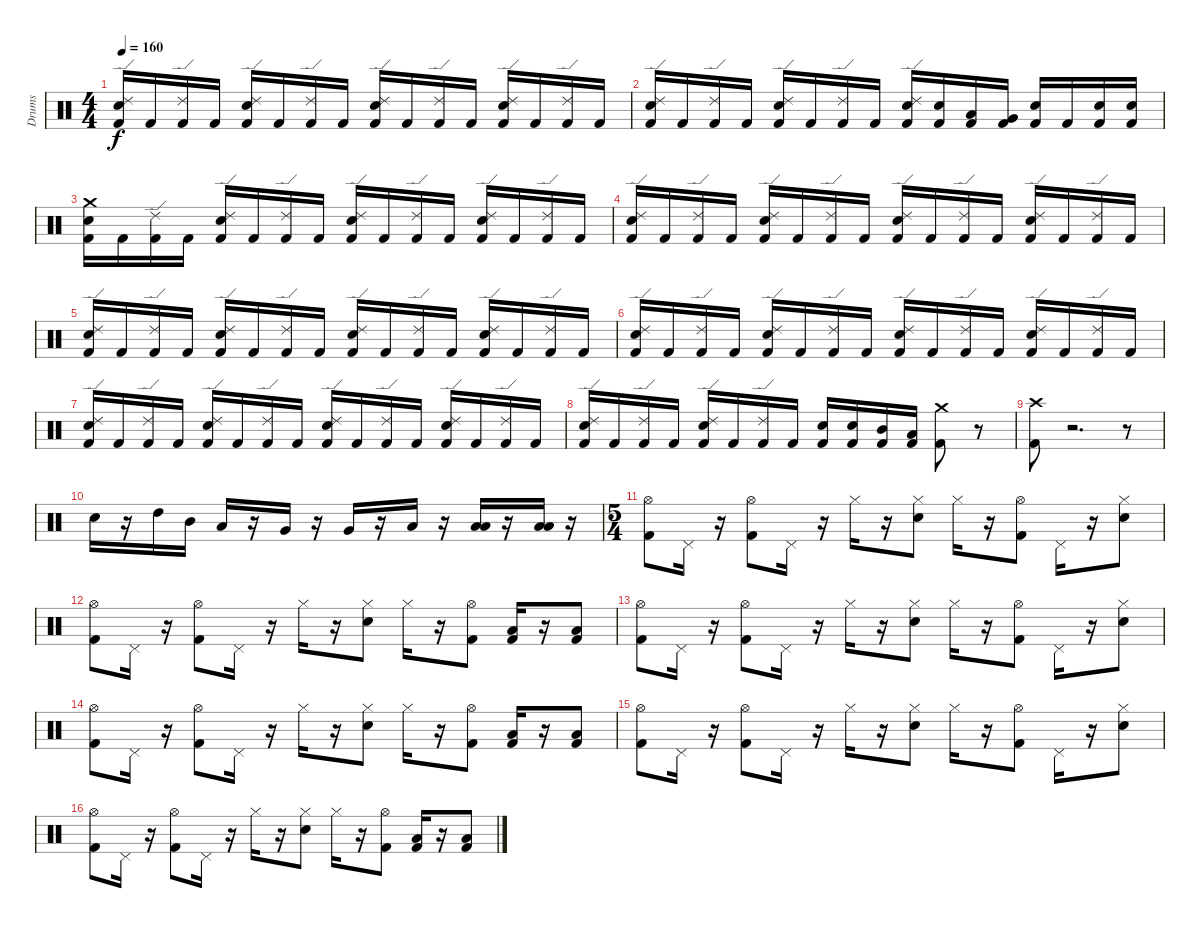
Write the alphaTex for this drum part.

\track ("Drums" "Drums") {instrument percussion}
\staff {score}
\articulation defaults
\ts (4 4)
\tempo 160
\clef neutral
\ks c
("Ride (edge) 2" "Kick (hit) 2" "Electric Snare (hit)").16{dy f} "Kick (hit) 2".16 ("Ride (edge) 2" "Kick (hit) 2").16 "Kick (hit) 2".16 ("Ride (edge) 2" "Kick (hit) 2" "Electric Snare (hit)").16 "Kick (hit) 2".16 ("Ride (edge) 2" "Kick (hit) 2").16 "Kick (hit) 2".16 ("Ride (edge) 2" "Kick (hit) 2" "Electric Snare (hit)").16 "Kick (hit) 2".16 ("Ride (edge) 2" "Kick (hit) 2").16 "Kick (hit) 2".16 ("Ride (edge) 2" "Kick (hit) 2" "Electric Snare (hit)").16 "Kick (hit) 2".16 ("Ride (edge) 2" "Kick (hit) 2").16 "Kick (hit) 2".16 |
("Ride (edge) 2" "Kick (hit) 2" "Electric Snare (hit)").16 "Kick (hit) 2".16 ("Ride (edge) 2" "Kick (hit) 2").16 "Kick (hit) 2".16 ("Ride (edge) 2" "Kick (hit) 2" "Electric Snare (hit)").16 "Kick (hit) 2".16 ("Ride (edge) 2" "Kick (hit) 2").16 "Kick (hit) 2".16 ("Ride (edge) 2" "Kick (hit) 2" "Electric Snare (hit)").16 ("Electric Snare (hit)" "Kick (hit) 2").16 ("Low Tom (hit)" "Kick (hit) 2").16 ("Very Low Tom (hit)" "Kick (hit) 2").16 ("Kick (hit) 2" "Electric Snare (hit)").16 "Kick (hit) 2".16 ("Electric Snare (hit)" "Kick (hit) 2").16 ("Electric Snare (hit)" "Kick (hit) 2").16 |
("Crash medium (hit)" "Kick (hit) 2" "Electric Snare (hit)").16 "Kick (hit) 2".16 ("Ride (edge) 2" "Kick (hit) 2").16 "Kick (hit) 2".16 ("Ride (edge) 2" "Kick (hit) 2" "Electric Snare (hit)").16 "Kick (hit) 2".16 ("Ride (edge) 2" "Kick (hit) 2").16 "Kick (hit) 2".16 ("Ride (edge) 2" "Kick (hit) 2" "Electric Snare (hit)").16 "Kick (hit) 2".16 ("Ride (edge) 2" "Kick (hit) 2").16 "Kick (hit) 2".16 ("Ride (edge) 2" "Kick (hit) 2" "Electric Snare (hit)").16 "Kick (hit) 2".16 ("Ride (edge) 2" "Kick (hit) 2").16 "Kick (hit) 2".16 |
("Ride (edge) 2" "Kick (hit) 2" "Electric Snare (hit)").16 "Kick (hit) 2".16 ("Ride (edge) 2" "Kick (hit) 2").16 "Kick (hit) 2".16 ("Ride (edge) 2" "Kick (hit) 2" "Electric Snare (hit)").16 "Kick (hit) 2".16 ("Ride (edge) 2" "Kick (hit) 2").16 "Kick (hit) 2".16 ("Ride (edge) 2" "Kick (hit) 2" "Electric Snare (hit)").16 "Kick (hit) 2".16 ("Ride (edge) 2" "Kick (hit) 2").16 "Kick (hit) 2".16 ("Ride (edge) 2" "Kick (hit) 2" "Electric Snare (hit)").16 "Kick (hit) 2".16 ("Ride (edge) 2" "Kick (hit) 2").16 "Kick (hit) 2".16 |
("Ride (edge) 2" "Kick (hit) 2" "Electric Snare (hit)").16 "Kick (hit) 2".16 ("Ride (edge) 2" "Kick (hit) 2").16 "Kick (hit) 2".16 ("Ride (edge) 2" "Kick (hit) 2" "Electric Snare (hit)").16 "Kick (hit) 2".16 ("Ride (edge) 2" "Kick (hit) 2").16 "Kick (hit) 2".16 ("Ride (edge) 2" "Kick (hit) 2" "Electric Snare (hit)").16 "Kick (hit) 2".16 ("Ride (edge) 2" "Kick (hit) 2").16 "Kick (hit) 2".16 ("Ride (edge) 2" "Kick (hit) 2" "Electric Snare (hit)").16 "Kick (hit) 2".16 ("Ride (edge) 2" "Kick (hit) 2").16 "Kick (hit) 2".16 |
("Ride (edge) 2" "Kick (hit) 2" "Electric Snare (hit)").16 "Kick (hit) 2".16 ("Ride (edge) 2" "Kick (hit) 2").16 "Kick (hit) 2".16 ("Ride (edge) 2" "Kick (hit) 2" "Electric Snare (hit)").16 "Kick (hit) 2".16 ("Ride (edge) 2" "Kick (hit) 2").16 "Kick (hit) 2".16 ("Ride (edge) 2" "Kick (hit) 2" "Electric Snare (hit)").16 "Kick (hit) 2".16 ("Ride (edge) 2" "Kick (hit) 2").16 "Kick (hit) 2".16 ("Ride (edge) 2" "Kick (hit) 2" "Electric Snare (hit)").16 "Kick (hit) 2".16 ("Ride (edge) 2" "Kick (hit) 2").16 "Kick (hit) 2".16 |
("Ride (edge) 2" "Kick (hit) 2" "Electric Snare (hit)").16 "Kick (hit) 2".16 ("Ride (edge) 2" "Kick (hit) 2").16 "Kick (hit) 2".16 ("Ride (edge) 2" "Kick (hit) 2" "Electric Snare (hit)").16 "Kick (hit) 2".16 ("Ride (edge) 2" "Kick (hit) 2").16 "Kick (hit) 2".16 ("Ride (edge) 2" "Kick (hit) 2" "Electric Snare (hit)").16 "Kick (hit) 2".16 ("Ride (edge) 2" "Kick (hit) 2").16 "Kick (hit) 2".16 ("Ride (edge) 2" "Kick (hit) 2" "Electric Snare (hit)").16 "Kick (hit) 2".16 ("Ride (edge) 2" "Kick (hit) 2").16 "Kick (hit) 2".16 |
("Ride (edge) 2" "Kick (hit) 2" "Electric Snare (hit)").16 "Kick (hit) 2".16 ("Ride (edge) 2" "Kick (hit) 2").16 "Kick (hit) 2".16 ("Ride (edge) 2" "Kick (hit) 2" "Electric Snare (hit)").16 "Kick (hit) 2".16 ("Ride (edge) 2" "Kick (hit) 2").16 "Kick (hit) 2".16 ("Kick (hit) 2" "Electric Snare (hit)").16 ("Electric Snare (hit)" "Kick (hit) 2").16 ("Mid Tom (hit)" "Kick (hit) 2").16 ("Low Tom (hit)" "Kick (hit) 2").16 ("Kick (hit) 2" "Crash medium (hit)").8 r.8 |
("Crash high (hit)" "Kick (hit) 2").8 r.2{d} r.8 |
"Electric Snare (hit)".16 r.16 "High Tom (hit)".16 "Mid Tom (hit)".16 "Low Tom (hit)".16 r.16 "Very Low Tom (hit)".16 r.16 "Very Low Tom (hit)".16 r.16 "Low Floor Tom (hit)".16 r.16 ("Low Tom (hit)" "Low Floor Tom (hit)").16 r.16 ("Low Floor Tom (hit)" "Low Tom (hit)").16 r.16 |
\ts (5 4)
("Hi-Hat (open)" "Kick (hit) 2").8 "Pedal Hi-Hat (hit)".16 r.16 ("Hi-Hat (open)" "Kick (hit) 2").8 "Pedal Hi-Hat (hit)".16 r.16 "Hi-Hat (closed)".16 r.16 ("Hi-Hat (closed)" "Electric Snare (hit)").8 "Hi-Hat (closed)".16 r.16 ("Hi-Hat (open)" "Kick (hit) 2").8 "Pedal Hi-Hat (hit)".16 r.16 ("Hi-Hat (closed)" "Electric Snare (hit)").8 |
("Hi-Hat (open)" "Kick (hit) 2").8 "Pedal Hi-Hat (hit)".16 r.16 ("Hi-Hat (open)" "Kick (hit) 2").8 "Pedal Hi-Hat (hit)".16 r.16 "Hi-Hat (closed)".16 r.16 ("Hi-Hat (closed)" "Electric Snare (hit)").8 "Hi-Hat (closed)".16 r.16 ("Hi-Hat (open)" "Kick (hit) 2").8 ("Kick (hit) 2" "Low Floor Tom (hit)").16 r.16 ("Low Floor Tom (hit)" "Kick (hit) 2").8 |
("Hi-Hat (open)" "Kick (hit) 2").8 "Pedal Hi-Hat (hit)".16 r.16 ("Hi-Hat (open)" "Kick (hit) 2").8 "Pedal Hi-Hat (hit)".16 r.16 "Hi-Hat (closed)".16 r.16 ("Hi-Hat (closed)" "Electric Snare (hit)").8 "Hi-Hat (closed)".16 r.16 ("Hi-Hat (open)" "Kick (hit) 2").8 "Pedal Hi-Hat (hit)".16 r.16 ("Hi-Hat (closed)" "Electric Snare (hit)").8 |
("Hi-Hat (open)" "Kick (hit) 2").8 "Pedal Hi-Hat (hit)".16 r.16 ("Hi-Hat (open)" "Kick (hit) 2").8 "Pedal Hi-Hat (hit)".16 r.16 "Hi-Hat (closed)".16 r.16 ("Hi-Hat (closed)" "Electric Snare (hit)").8 "Hi-Hat (closed)".16 r.16 ("Hi-Hat (open)" "Kick (hit) 2").8 ("Kick (hit) 2" "Low Floor Tom (hit)").16 r.16 ("Low Floor Tom (hit)" "Kick (hit) 2").8 |
("Hi-Hat (open)" "Kick (hit) 2").8 "Pedal Hi-Hat (hit)".16 r.16 ("Hi-Hat (open)" "Kick (hit) 2").8 "Pedal Hi-Hat (hit)".16 r.16 "Hi-Hat (closed)".16 r.16 ("Hi-Hat (closed)" "Electric Snare (hit)").8 "Hi-Hat (closed)".16 r.16 ("Hi-Hat (open)" "Kick (hit) 2").8 "Pedal Hi-Hat (hit)".16 r.16 ("Hi-Hat (closed)" "Electric Snare (hit)").8 |
("Hi-Hat (open)" "Kick (hit) 2").8 "Pedal Hi-Hat (hit)".16 r.16 ("Hi-Hat (open)" "Kick (hit) 2").8 "Pedal Hi-Hat (hit)".16 r.16 "Hi-Hat (closed)".16 r.16 ("Hi-Hat (closed)" "Electric Snare (hit)").8 "Hi-Hat (closed)".16 r.16 ("Hi-Hat (open)" "Kick (hit) 2").8 ("Kick (hit) 2" "Low Floor Tom (hit)").16 r.16 ("Low Floor Tom (hit)" "Kick (hit) 2").8
